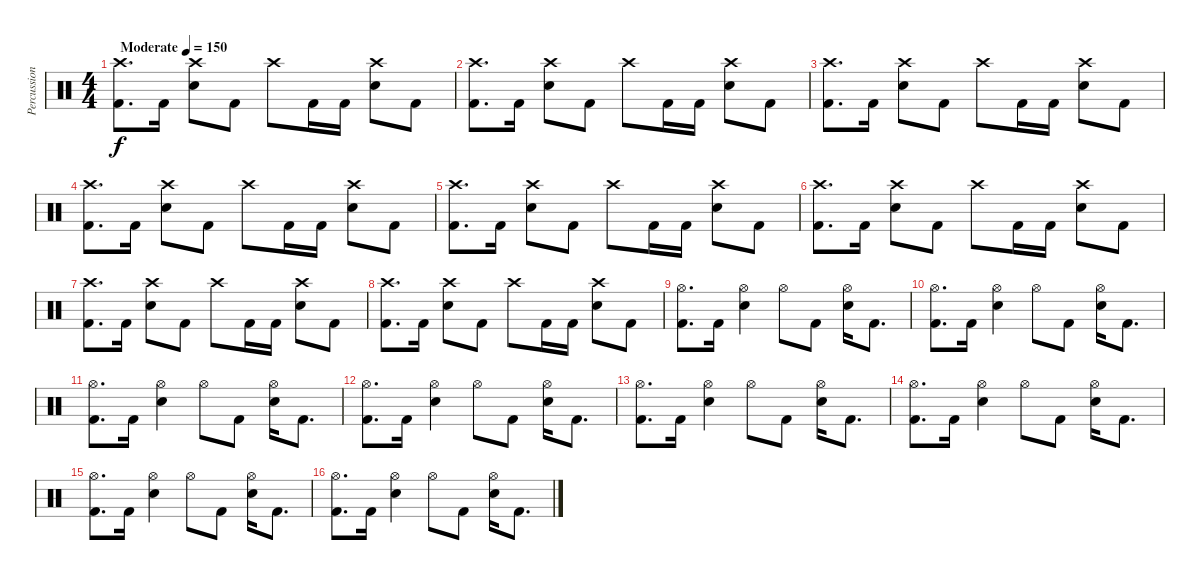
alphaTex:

\track ("Percussion" "Percussion") {instrument percussion}
\staff {score}
\articulation defaults
\ts (4 4)
\tempo (150 "Moderate")
\clef neutral
\ks c
("Crash high (hit)" "Kick (hit) 2").8{d dy f} "Kick (hit) 2".16 ("Crash high (hit)" "Snare (hit) 2").8 "Kick (hit) 2".8 "Crash high (hit)".8 "Kick (hit) 2".16 "Kick (hit) 2".16 ("Crash high (hit)" "Snare (hit) 2").8 "Kick (hit) 2".8 |
("Crash high (hit)" "Kick (hit) 2").8{d} "Kick (hit) 2".16 ("Crash high (hit)" "Snare (hit) 2").8 "Kick (hit) 2".8 "Crash high (hit)".8 "Kick (hit) 2".16 "Kick (hit) 2".16 ("Crash high (hit)" "Snare (hit) 2").8 "Kick (hit) 2".8 |
("Crash high (hit)" "Kick (hit) 2").8{d} "Kick (hit) 2".16 ("Crash high (hit)" "Snare (hit) 2").8 "Kick (hit) 2".8 "Crash high (hit)".8 "Kick (hit) 2".16 "Kick (hit) 2".16 ("Crash high (hit)" "Snare (hit) 2").8 "Kick (hit) 2".8 |
("Crash high (hit)" "Kick (hit) 2").8{d} "Kick (hit) 2".16 ("Crash high (hit)" "Snare (hit) 2").8 "Kick (hit) 2".8 "Crash high (hit)".8 "Kick (hit) 2".16 "Kick (hit) 2".16 ("Crash high (hit)" "Snare (hit) 2").8 "Kick (hit) 2".8 |
("Crash high (hit)" "Kick (hit) 2").8{d} "Kick (hit) 2".16 ("Crash high (hit)" "Snare (hit) 2").8 "Kick (hit) 2".8 "Crash high (hit)".8 "Kick (hit) 2".16 "Kick (hit) 2".16 ("Crash high (hit)" "Snare (hit) 2").8 "Kick (hit) 2".8 |
("Crash high (hit)" "Kick (hit) 2").8{d} "Kick (hit) 2".16 ("Crash high (hit)" "Snare (hit) 2").8 "Kick (hit) 2".8 "Crash high (hit)".8 "Kick (hit) 2".16 "Kick (hit) 2".16 ("Crash high (hit)" "Snare (hit) 2").8 "Kick (hit) 2".8 |
("Crash high (hit)" "Kick (hit) 2").8{d} "Kick (hit) 2".16 ("Crash high (hit)" "Snare (hit) 2").8 "Kick (hit) 2".8 "Crash high (hit)".8 "Kick (hit) 2".16 "Kick (hit) 2".16 ("Crash high (hit)" "Snare (hit) 2").8 "Kick (hit) 2".8 |
("Crash high (hit)" "Kick (hit) 2").8{d} "Kick (hit) 2".16 ("Crash high (hit)" "Snare (hit) 2").8 "Kick (hit) 2".8 "Crash high (hit)".8 "Kick (hit) 2".16 "Kick (hit) 2".16 ("Crash high (hit)" "Snare (hit) 2").8 "Kick (hit) 2".8 |
("Hi-Hat (open)" "Kick (hit) 2").8{d} "Kick (hit) 2".16 ("Hi-Hat (open)" "Snare (hit) 2").4 "Hi-Hat (open)".8 "Kick (hit) 2".8 ("Hi-Hat (open)" "Snare (hit) 2").16 "Kick (hit) 2".8{d} |
("Hi-Hat (open)" "Kick (hit) 2").8{d} "Kick (hit) 2".16 ("Hi-Hat (open)" "Snare (hit) 2").4 "Hi-Hat (open)".8 "Kick (hit) 2".8 ("Hi-Hat (open)" "Snare (hit) 2").16 "Kick (hit) 2".8{d} |
("Hi-Hat (open)" "Kick (hit) 2").8{d} "Kick (hit) 2".16 ("Hi-Hat (open)" "Snare (hit) 2").4 "Hi-Hat (open)".8 "Kick (hit) 2".8 ("Hi-Hat (open)" "Snare (hit) 2").16 "Kick (hit) 2".8{d} |
("Hi-Hat (open)" "Kick (hit) 2").8{d} "Kick (hit) 2".16 ("Hi-Hat (open)" "Snare (hit) 2").4 "Hi-Hat (open)".8 "Kick (hit) 2".8 ("Hi-Hat (open)" "Snare (hit) 2").16 "Kick (hit) 2".8{d} |
("Hi-Hat (open)" "Kick (hit) 2").8{d} "Kick (hit) 2".16 ("Hi-Hat (open)" "Snare (hit) 2").4 "Hi-Hat (open)".8 "Kick (hit) 2".8 ("Hi-Hat (open)" "Snare (hit) 2").16 "Kick (hit) 2".8{d} |
("Hi-Hat (open)" "Kick (hit) 2").8{d} "Kick (hit) 2".16 ("Hi-Hat (open)" "Snare (hit) 2").4 "Hi-Hat (open)".8 "Kick (hit) 2".8 ("Hi-Hat (open)" "Snare (hit) 2").16 "Kick (hit) 2".8{d} |
("Hi-Hat (open)" "Kick (hit) 2").8{d} "Kick (hit) 2".16 ("Hi-Hat (open)" "Snare (hit) 2").4 "Hi-Hat (open)".8 "Kick (hit) 2".8 ("Hi-Hat (open)" "Snare (hit) 2").16 "Kick (hit) 2".8{d} |
("Hi-Hat (open)" "Kick (hit) 2").8{d} "Kick (hit) 2".16 ("Hi-Hat (open)" "Snare (hit) 2").4 "Hi-Hat (open)".8 "Kick (hit) 2".8 ("Hi-Hat (open)" "Snare (hit) 2").16 "Kick (hit) 2".8{d}
